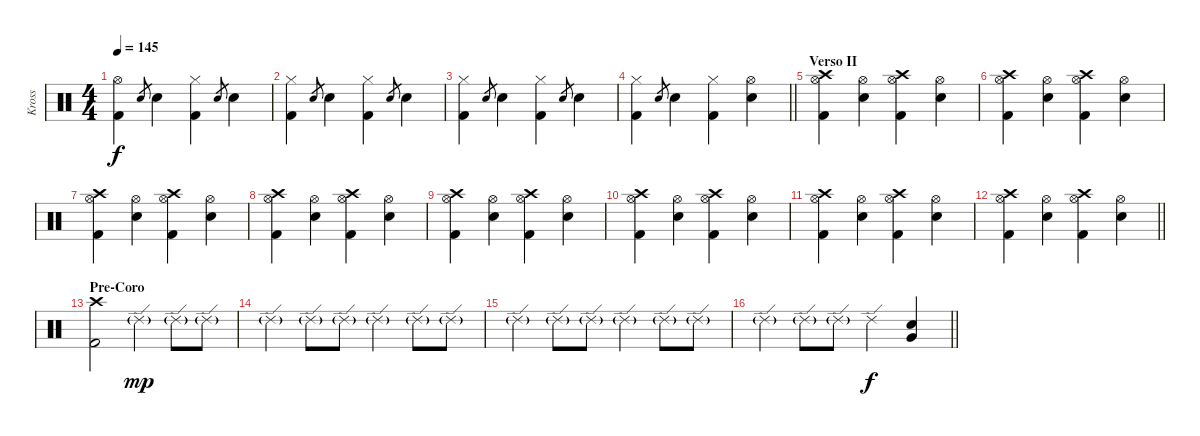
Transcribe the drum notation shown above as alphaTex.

\track ("Kross" "Kross") {instrument percussion}
\staff {score}
\articulation defaults
\ts (4 4)
\tempo 145
\clef neutral
\ks c
("Hi-Hat (open)" "Kick (hit) 2").4{dy f} "Electric Snare (hit)".8{gr} "Electric Snare (hit)".4 ("Hi-Hat (closed)" "Kick (hit) 2").4 "Electric Snare (hit)".8{gr} "Electric Snare (hit)".4 |
("Hi-Hat (closed)" "Kick (hit) 2").4 "Electric Snare (hit)".8{gr} "Electric Snare (hit)".4 ("Hi-Hat (closed)" "Kick (hit) 2").4 "Electric Snare (hit)".8{gr} "Electric Snare (hit)".4 |
("Hi-Hat (closed)" "Kick (hit) 2").4 "Electric Snare (hit)".8{gr} "Electric Snare (hit)".4 ("Hi-Hat (closed)" "Kick (hit) 2").4 "Electric Snare (hit)".8{gr} "Electric Snare (hit)".4 |
\barLineRight lightlight
("Hi-Hat (closed)" "Kick (hit) 2").4 "Electric Snare (hit)".8{gr} "Electric Snare (hit)".4 ("Hi-Hat (closed)" "Kick (hit) 2").4 ("Hi-Hat (open)" "Electric Snare (hit)").4 |
\section ("" "Verso II")
("Crash high (hit)" "Hi-Hat (open)" "Kick (hit) 2").4 ("Hi-Hat (open)" "Electric Snare (hit)").4 ("Crash high (hit)" "Hi-Hat (open)" "Kick (hit) 2").4 ("Hi-Hat (open)" "Electric Snare (hit)").4 |
("Crash high (hit)" "Hi-Hat (open)" "Kick (hit) 2").4 ("Hi-Hat (open)" "Electric Snare (hit)").4 ("Crash high (hit)" "Hi-Hat (open)" "Kick (hit) 2").4 ("Hi-Hat (open)" "Electric Snare (hit)").4 |
("Crash high (hit)" "Hi-Hat (open)" "Kick (hit) 2").4 ("Hi-Hat (open)" "Electric Snare (hit)").4 ("Crash high (hit)" "Hi-Hat (open)" "Kick (hit) 2").4 ("Hi-Hat (open)" "Electric Snare (hit)").4 |
("Crash high (hit)" "Hi-Hat (open)" "Kick (hit) 2").4 ("Hi-Hat (open)" "Electric Snare (hit)").4 ("Crash high (hit)" "Hi-Hat (open)" "Kick (hit) 2").4 ("Hi-Hat (open)" "Electric Snare (hit)").4 |
("Crash high (hit)" "Hi-Hat (open)" "Kick (hit) 2").4 ("Hi-Hat (open)" "Electric Snare (hit)").4 ("Crash high (hit)" "Hi-Hat (open)" "Kick (hit) 2").4 ("Hi-Hat (open)" "Electric Snare (hit)").4 |
("Crash high (hit)" "Hi-Hat (open)" "Kick (hit) 2").4 ("Hi-Hat (open)" "Electric Snare (hit)").4 ("Crash high (hit)" "Hi-Hat (open)" "Kick (hit) 2").4 ("Hi-Hat (open)" "Electric Snare (hit)").4 |
("Crash high (hit)" "Hi-Hat (open)" "Kick (hit) 2").4 ("Hi-Hat (open)" "Electric Snare (hit)").4 ("Crash high (hit)" "Hi-Hat (open)" "Kick (hit) 2").4 ("Hi-Hat (open)" "Electric Snare (hit)").4 |
\barLineRight lightlight
("Crash high (hit)" "Hi-Hat (open)" "Kick (hit) 2").4 ("Hi-Hat (open)" "Electric Snare (hit)").4 ("Crash high (hit)" "Hi-Hat (open)" "Kick (hit) 2").4 ("Hi-Hat (open)" "Electric Snare (hit)").4 |
\section ("" "Pre-Coro")
("Crash high (hit)" "Kick (hit) 2").2 "Ride (edge) 2"{g}.4{dy mp} "Ride (edge) 2"{g}.8 "Ride (edge) 2"{g}.8 |
"Ride (edge) 2"{g}.4 "Ride (edge) 2"{g}.8 "Ride (edge) 2"{g}.8 "Ride (edge) 2"{g}.4 "Ride (edge) 2"{g}.8 "Ride (edge) 2"{g}.8 |
"Ride (edge) 2"{g}.4 "Ride (edge) 2"{g}.8 "Ride (edge) 2"{g}.8 "Ride (edge) 2"{g}.4 "Ride (edge) 2"{g}.8 "Ride (edge) 2"{g}.8 |
\barLineRight lightlight "Ride (edge) 2"{g}.4 "Ride (edge) 2"{g}.8 "Ride (edge) 2"{g}.8 "Ride (edge) 2".4{dy f}
("Very Low Tom (hit)" "Electric Snare (hit)").4
